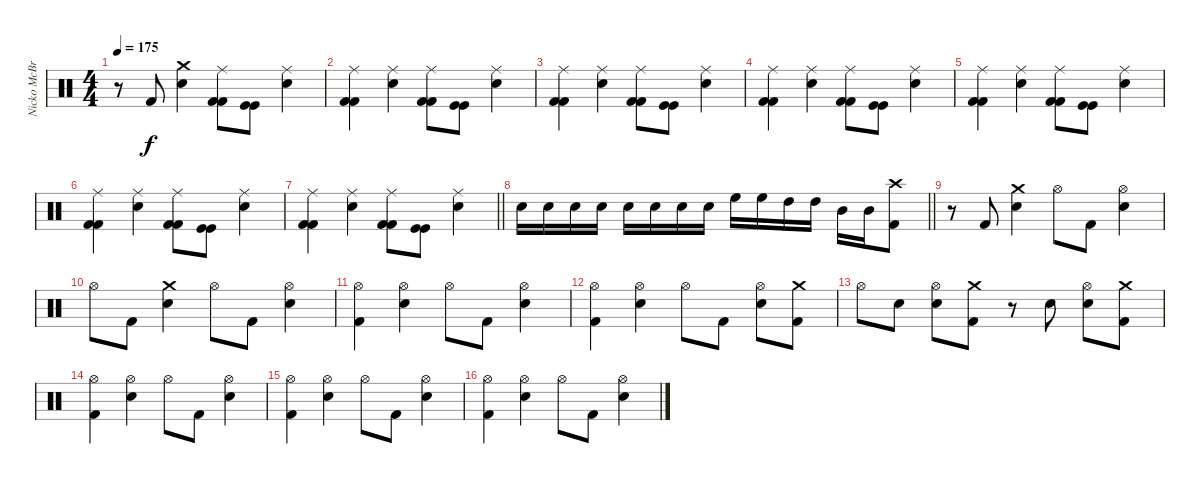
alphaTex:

\track ("Nicko McBrian" "Nicko McBr") {instrument percussion}
\staff {score}
\articulation defaults
\ts (4 4)
\tempo 175
\clef neutral
\ks c
r.8{dy f} "Kick (hit) 2".8 ("Crash medium (hit)" "Snare (hit) 2").4 ("Ride (middle)" "Kick (hit) 2" "Kick (hit) 2").8 ("Kick (hit)" "Kick (hit)").8 ("Ride (middle)" "Snare (hit) 2").4 |
("Ride (middle)" "Kick (hit) 2" "Kick (hit) 2").4 ("Ride (middle)" "Snare (hit) 2").4 ("Ride (middle)" "Kick (hit) 2" "Kick (hit) 2").8 ("Kick (hit)" "Kick (hit)").8 ("Ride (middle)" "Snare (hit) 2").4 |
("Ride (middle)" "Kick (hit) 2" "Kick (hit) 2").4 ("Ride (middle)" "Snare (hit) 2").4 ("Ride (middle)" "Kick (hit) 2" "Kick (hit) 2").8 ("Kick (hit)" "Kick (hit)").8 ("Ride (middle)" "Snare (hit) 2").4 |
("Ride (middle)" "Kick (hit) 2" "Kick (hit) 2").4 ("Ride (middle)" "Snare (hit) 2").4 ("Ride (middle)" "Kick (hit) 2" "Kick (hit) 2").8 ("Kick (hit)" "Kick (hit)").8 ("Ride (middle)" "Snare (hit) 2").4 |
("Ride (middle)" "Kick (hit) 2" "Kick (hit) 2").4 ("Ride (middle)" "Snare (hit) 2").4 ("Ride (middle)" "Kick (hit) 2" "Kick (hit) 2").8 ("Kick (hit)" "Kick (hit)").8 ("Ride (middle)" "Snare (hit) 2").4 |
("Ride (middle)" "Kick (hit) 2" "Kick (hit) 2").4 ("Ride (middle)" "Snare (hit) 2").4 ("Ride (middle)" "Kick (hit) 2" "Kick (hit) 2").8 ("Kick (hit)" "Kick (hit)").8 ("Ride (middle)" "Snare (hit) 2").4 |
\barLineRight lightlight
("Ride (middle)" "Kick (hit) 2" "Kick (hit) 2").4 ("Ride (middle)" "Snare (hit) 2").4 ("Ride (middle)" "Kick (hit) 2" "Kick (hit) 2").8 ("Kick (hit)" "Kick (hit)").8 ("Ride (middle)" "Snare (hit) 2").4 |
\barLineRight lightlight "Snare (hit) 2".16 "Snare (hit) 2".16 "Snare (hit) 2".16 "Snare (hit) 2".16 "Snare (hit) 2".16 "Snare (hit) 2".16 "Snare (hit) 2".16 "Snare (hit) 2".16 "High Floor Tom (hit)".16 "High Floor Tom (hit)".16 "High Tom (hit)".16 "High Tom (hit)".16 "Mid Tom (hit)".16 "Mid Tom (hit)".16
("Crash high (hit)" "Kick (hit) 2").8 |
r.8 "Kick (hit) 2".8 ("Crash medium (hit)" "Snare (hit) 2").4 "Hi-Hat (open)".8 "Kick (hit) 2".8 ("Hi-Hat (open)" "Snare (hit) 2").4 |
"Hi-Hat (open)".8 "Kick (hit) 2".8 ("Crash medium (hit)" "Snare (hit) 2").4 "Hi-Hat (open)".8 "Kick (hit) 2".8 ("Hi-Hat (open)" "Snare (hit) 2").4 |
("Hi-Hat (open)" "Kick (hit) 2").4 ("Hi-Hat (open)" "Snare (hit) 2").4 "Hi-Hat (open)".8 "Kick (hit) 2".8 ("Hi-Hat (open)" "Snare (hit) 2").4 |
("Hi-Hat (open)" "Kick (hit) 2").4 ("Hi-Hat (open)" "Snare (hit) 2").4 "Hi-Hat (open)".8 "Kick (hit) 2".8 ("Hi-Hat (open)" "Snare (hit) 2").8 ("Crash medium (hit)" "Kick (hit) 2").8 |
"Hi-Hat (open)".8 "Snare (hit) 2".8 ("Hi-Hat (open)" "Snare (hit) 2").8 ("Crash medium (hit)" "Kick (hit) 2").8 r.8 "Snare (hit) 2".8 ("Hi-Hat (open)" "Snare (hit) 2").8 ("Crash medium (hit)" "Kick (hit) 2").8 |
("Hi-Hat (open)" "Kick (hit) 2").4 ("Hi-Hat (open)" "Snare (hit) 2").4 "Hi-Hat (open)".8 "Kick (hit) 2".8 ("Hi-Hat (open)" "Snare (hit) 2").4 |
("Hi-Hat (open)" "Kick (hit) 2").4 ("Hi-Hat (open)" "Snare (hit) 2").4 "Hi-Hat (open)".8 "Kick (hit) 2".8 ("Hi-Hat (open)" "Snare (hit) 2").4 |
("Hi-Hat (open)" "Kick (hit) 2").4 ("Hi-Hat (open)" "Snare (hit) 2").4 "Hi-Hat (open)".8 "Kick (hit) 2".8 ("Hi-Hat (open)" "Snare (hit) 2").4
